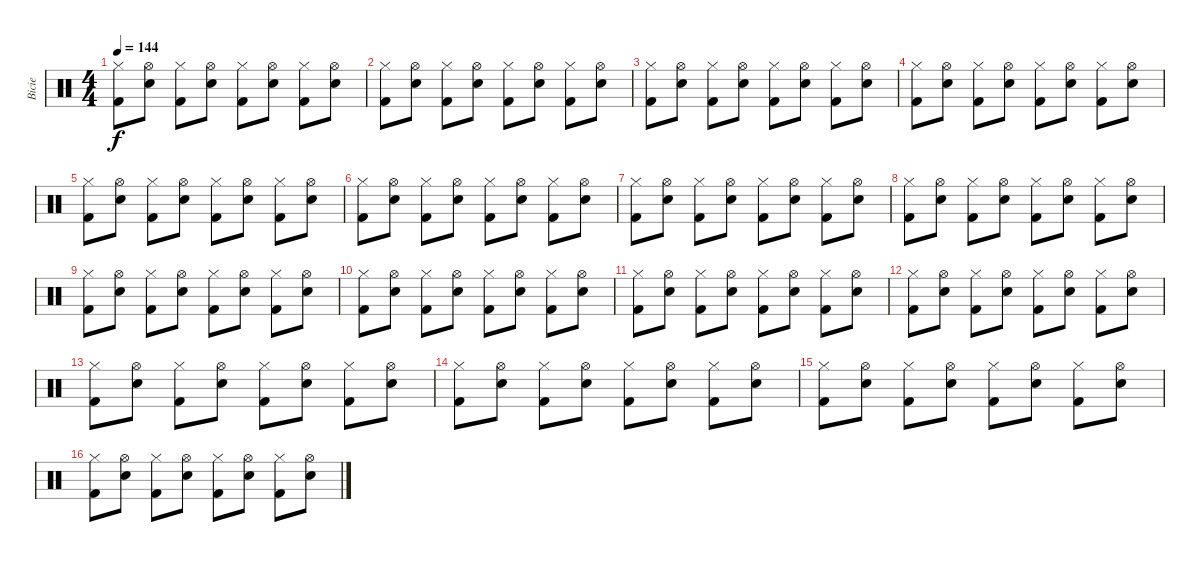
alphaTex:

\track ("Bicie" "Bicie") {instrument percussion}
\staff {score}
\articulation defaults
\ts (4 4)
\tempo 144
\clef neutral
\ks c
("Hi-Hat (closed)" "Kick (hit) 2").8{dy f} ("Hi-Hat (open)" "Electric Snare (hit)").8 ("Hi-Hat (closed)" "Kick (hit) 2").8 ("Hi-Hat (open)" "Electric Snare (hit)").8 ("Hi-Hat (closed)" "Kick (hit) 2").8 ("Hi-Hat (open)" "Electric Snare (hit)").8 ("Hi-Hat (closed)" "Kick (hit) 2").8 ("Hi-Hat (open)" "Electric Snare (hit)").8 |
("Hi-Hat (closed)" "Kick (hit) 2").8 ("Hi-Hat (open)" "Electric Snare (hit)").8 ("Hi-Hat (closed)" "Kick (hit) 2").8 ("Hi-Hat (open)" "Electric Snare (hit)").8 ("Hi-Hat (closed)" "Kick (hit) 2").8 ("Hi-Hat (open)" "Electric Snare (hit)").8 ("Hi-Hat (closed)" "Kick (hit) 2").8 ("Hi-Hat (open)" "Electric Snare (hit)").8 |
("Hi-Hat (closed)" "Kick (hit) 2").8 ("Hi-Hat (open)" "Electric Snare (hit)").8 ("Hi-Hat (closed)" "Kick (hit) 2").8 ("Hi-Hat (open)" "Electric Snare (hit)").8 ("Hi-Hat (closed)" "Kick (hit) 2").8 ("Hi-Hat (open)" "Electric Snare (hit)").8 ("Hi-Hat (closed)" "Kick (hit) 2").8 ("Hi-Hat (open)" "Electric Snare (hit)").8 |
("Hi-Hat (closed)" "Kick (hit) 2").8 ("Hi-Hat (open)" "Electric Snare (hit)").8 ("Hi-Hat (closed)" "Kick (hit) 2").8 ("Hi-Hat (open)" "Electric Snare (hit)").8 ("Hi-Hat (closed)" "Kick (hit) 2").8 ("Hi-Hat (open)" "Electric Snare (hit)").8 ("Hi-Hat (closed)" "Kick (hit) 2").8 ("Hi-Hat (open)" "Electric Snare (hit)").8 |
("Hi-Hat (closed)" "Kick (hit) 2").8 ("Hi-Hat (open)" "Electric Snare (hit)").8 ("Hi-Hat (closed)" "Kick (hit) 2").8 ("Hi-Hat (open)" "Electric Snare (hit)").8 ("Hi-Hat (closed)" "Kick (hit) 2").8 ("Hi-Hat (open)" "Electric Snare (hit)").8 ("Hi-Hat (closed)" "Kick (hit) 2").8 ("Hi-Hat (open)" "Electric Snare (hit)").8 |
("Hi-Hat (closed)" "Kick (hit) 2").8 ("Hi-Hat (open)" "Electric Snare (hit)").8 ("Hi-Hat (closed)" "Kick (hit) 2").8 ("Hi-Hat (open)" "Electric Snare (hit)").8 ("Hi-Hat (closed)" "Kick (hit) 2").8 ("Hi-Hat (open)" "Electric Snare (hit)").8 ("Hi-Hat (closed)" "Kick (hit) 2").8 ("Hi-Hat (open)" "Electric Snare (hit)").8 |
("Hi-Hat (closed)" "Kick (hit) 2").8 ("Hi-Hat (open)" "Electric Snare (hit)").8 ("Hi-Hat (closed)" "Kick (hit) 2").8 ("Hi-Hat (open)" "Electric Snare (hit)").8 ("Hi-Hat (closed)" "Kick (hit) 2").8 ("Hi-Hat (open)" "Electric Snare (hit)").8 ("Hi-Hat (closed)" "Kick (hit) 2").8 ("Hi-Hat (open)" "Electric Snare (hit)").8 |
("Hi-Hat (closed)" "Kick (hit) 2").8 ("Hi-Hat (open)" "Electric Snare (hit)").8 ("Hi-Hat (closed)" "Kick (hit) 2").8 ("Hi-Hat (open)" "Electric Snare (hit)").8 ("Hi-Hat (closed)" "Kick (hit) 2").8 ("Hi-Hat (open)" "Electric Snare (hit)").8 ("Hi-Hat (closed)" "Kick (hit) 2").8 ("Hi-Hat (open)" "Electric Snare (hit)").8 |
("Hi-Hat (closed)" "Kick (hit) 2").8 ("Hi-Hat (open)" "Electric Snare (hit)").8 ("Hi-Hat (closed)" "Kick (hit) 2").8 ("Hi-Hat (open)" "Electric Snare (hit)").8 ("Hi-Hat (closed)" "Kick (hit) 2").8 ("Hi-Hat (open)" "Electric Snare (hit)").8 ("Hi-Hat (closed)" "Kick (hit) 2").8 ("Hi-Hat (open)" "Electric Snare (hit)").8 |
("Hi-Hat (closed)" "Kick (hit) 2").8 ("Hi-Hat (open)" "Electric Snare (hit)").8 ("Hi-Hat (closed)" "Kick (hit) 2").8 ("Hi-Hat (open)" "Electric Snare (hit)").8 ("Hi-Hat (closed)" "Kick (hit) 2").8 ("Hi-Hat (open)" "Electric Snare (hit)").8 ("Hi-Hat (closed)" "Kick (hit) 2").8 ("Hi-Hat (open)" "Electric Snare (hit)").8 |
("Hi-Hat (closed)" "Kick (hit) 2").8 ("Hi-Hat (open)" "Electric Snare (hit)").8 ("Hi-Hat (closed)" "Kick (hit) 2").8 ("Hi-Hat (open)" "Electric Snare (hit)").8 ("Hi-Hat (closed)" "Kick (hit) 2").8 ("Hi-Hat (open)" "Electric Snare (hit)").8 ("Hi-Hat (closed)" "Kick (hit) 2").8 ("Hi-Hat (open)" "Electric Snare (hit)").8 |
("Hi-Hat (closed)" "Kick (hit) 2").8 ("Hi-Hat (open)" "Electric Snare (hit)").8 ("Hi-Hat (closed)" "Kick (hit) 2").8 ("Hi-Hat (open)" "Electric Snare (hit)").8 ("Hi-Hat (closed)" "Kick (hit) 2").8 ("Hi-Hat (open)" "Electric Snare (hit)").8 ("Hi-Hat (closed)" "Kick (hit) 2").8 ("Hi-Hat (open)" "Electric Snare (hit)").8 |
("Hi-Hat (closed)" "Kick (hit) 2").8 ("Hi-Hat (open)" "Electric Snare (hit)").8 ("Hi-Hat (closed)" "Kick (hit) 2").8 ("Hi-Hat (open)" "Electric Snare (hit)").8 ("Hi-Hat (closed)" "Kick (hit) 2").8 ("Hi-Hat (open)" "Electric Snare (hit)").8 ("Hi-Hat (closed)" "Kick (hit) 2").8 ("Hi-Hat (open)" "Electric Snare (hit)").8 |
("Hi-Hat (closed)" "Kick (hit) 2").8 ("Hi-Hat (open)" "Electric Snare (hit)").8 ("Hi-Hat (closed)" "Kick (hit) 2").8 ("Hi-Hat (open)" "Electric Snare (hit)").8 ("Hi-Hat (closed)" "Kick (hit) 2").8 ("Hi-Hat (open)" "Electric Snare (hit)").8 ("Hi-Hat (closed)" "Kick (hit) 2").8 ("Hi-Hat (open)" "Electric Snare (hit)").8 |
("Hi-Hat (closed)" "Kick (hit) 2").8 ("Hi-Hat (open)" "Electric Snare (hit)").8 ("Hi-Hat (closed)" "Kick (hit) 2").8 ("Hi-Hat (open)" "Electric Snare (hit)").8 ("Hi-Hat (closed)" "Kick (hit) 2").8 ("Hi-Hat (open)" "Electric Snare (hit)").8 ("Hi-Hat (closed)" "Kick (hit) 2").8 ("Hi-Hat (open)" "Electric Snare (hit)").8 |
("Hi-Hat (closed)" "Kick (hit) 2").8 ("Hi-Hat (open)" "Electric Snare (hit)").8 ("Hi-Hat (closed)" "Kick (hit) 2").8 ("Hi-Hat (open)" "Electric Snare (hit)").8 ("Hi-Hat (closed)" "Kick (hit) 2").8 ("Hi-Hat (open)" "Electric Snare (hit)").8 ("Hi-Hat (closed)" "Kick (hit) 2").8 ("Hi-Hat (open)" "Electric Snare (hit)").8
